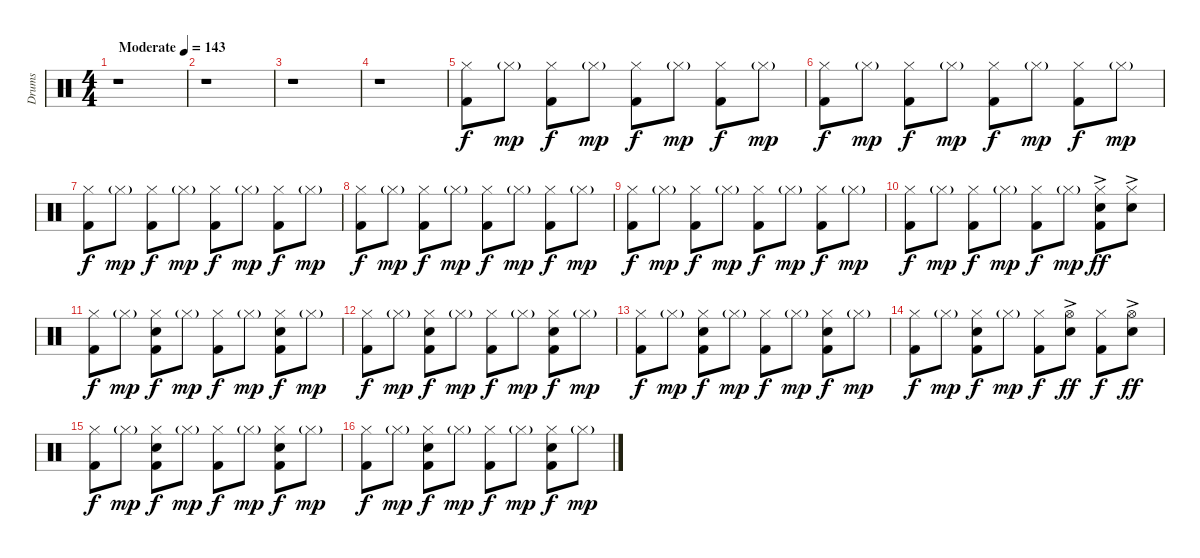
\track ("Drums" "Drums") {instrument percussion}
\staff {score}
\articulation defaults
\ts (4 4)
\tempo (143 "Moderate")
\clef neutral
\ks c
r.1{dy f} |
r.1 |
r.1 |
r.1 |
("Hi-Hat (closed)" "Kick (hit) 2").8 "Hi-Hat (closed)"{g}.8{dy mp} ("Hi-Hat (closed)" "Kick (hit) 2").8{dy f} "Hi-Hat (closed)"{g}.8{dy mp} ("Hi-Hat (closed)" "Kick (hit) 2").8{dy f} "Hi-Hat (closed)"{g}.8{dy mp} ("Hi-Hat (closed)" "Kick (hit) 2").8{dy f} "Hi-Hat (closed)"{g}.8{dy mp} |
("Hi-Hat (closed)" "Kick (hit) 2").8{dy f} "Hi-Hat (closed)"{g}.8{dy mp} ("Hi-Hat (closed)" "Kick (hit) 2").8{dy f} "Hi-Hat (closed)"{g}.8{dy mp} ("Hi-Hat (closed)" "Kick (hit) 2").8{dy f} "Hi-Hat (closed)"{g}.8{dy mp} ("Hi-Hat (closed)" "Kick (hit) 2").8{dy f} "Hi-Hat (closed)"{g}.8{dy mp} |
("Hi-Hat (closed)" "Kick (hit) 2").8{dy f} "Hi-Hat (closed)"{g}.8{dy mp} ("Hi-Hat (closed)" "Kick (hit) 2").8{dy f} "Hi-Hat (closed)"{g}.8{dy mp} ("Hi-Hat (closed)" "Kick (hit) 2").8{dy f} "Hi-Hat (closed)"{g}.8{dy mp} ("Hi-Hat (closed)" "Kick (hit) 2").8{dy f} "Hi-Hat (closed)"{g}.8{dy mp} |
("Hi-Hat (closed)" "Kick (hit) 2").8{dy f} "Hi-Hat (closed)"{g}.8{dy mp} ("Hi-Hat (closed)" "Kick (hit) 2").8{dy f} "Hi-Hat (closed)"{g}.8{dy mp} ("Hi-Hat (closed)" "Kick (hit) 2").8{dy f} "Hi-Hat (closed)"{g}.8{dy mp} ("Hi-Hat (closed)" "Kick (hit) 2").8{dy f} "Hi-Hat (closed)"{g}.8{dy mp} |
("Hi-Hat (closed)" "Kick (hit) 2").8{dy f} "Hi-Hat (closed)"{g}.8{dy mp} ("Hi-Hat (closed)" "Kick (hit) 2").8{dy f} "Hi-Hat (closed)"{g}.8{dy mp} ("Hi-Hat (closed)" "Kick (hit) 2").8{dy f} "Hi-Hat (closed)"{g}.8{dy mp} ("Hi-Hat (closed)" "Kick (hit) 2").8{dy f} "Hi-Hat (closed)"{g}.8{dy mp} |
("Hi-Hat (closed)" "Kick (hit) 2").8{dy f} "Hi-Hat (closed)"{g}.8{dy mp} ("Hi-Hat (closed)" "Kick (hit) 2").8{dy f} "Hi-Hat (closed)"{g}.8{dy mp} ("Hi-Hat (closed)" "Kick (hit) 2").8{dy f} "Hi-Hat (closed)"{g}.8{dy mp} ("Hi-Hat (closed)" "Electric Snare (hit)" "Kick (hit) 2"{ac}).8{dy ff} ("Hi-Hat (closed)" "Electric Snare (hit)"{ac}).8 |
("Hi-Hat (closed)" "Kick (hit) 2").8{dy f} "Hi-Hat (closed)"{g}.8{dy mp} ("Hi-Hat (closed)" "Electric Snare (hit)" "Kick (hit) 2").8{dy f} "Hi-Hat (closed)"{g}.8{dy mp} ("Hi-Hat (closed)" "Kick (hit) 2").8{dy f} "Hi-Hat (closed)"{g}.8{dy mp} ("Hi-Hat (closed)" "Electric Snare (hit)" "Kick (hit) 2").8{dy f} "Hi-Hat (closed)"{g}.8{dy mp} |
("Hi-Hat (closed)" "Kick (hit) 2").8{dy f} "Hi-Hat (closed)"{g}.8{dy mp} ("Hi-Hat (closed)" "Electric Snare (hit)" "Kick (hit) 2").8{dy f} "Hi-Hat (closed)"{g}.8{dy mp} ("Hi-Hat (closed)" "Kick (hit) 2").8{dy f} "Hi-Hat (closed)"{g}.8{dy mp} ("Hi-Hat (closed)" "Electric Snare (hit)" "Kick (hit) 2").8{dy f} "Hi-Hat (closed)"{g}.8{dy mp} |
("Hi-Hat (closed)" "Kick (hit) 2").8{dy f} "Hi-Hat (closed)"{g}.8{dy mp} ("Hi-Hat (closed)" "Electric Snare (hit)" "Kick (hit) 2").8{dy f} "Hi-Hat (closed)"{g}.8{dy mp} ("Hi-Hat (closed)" "Kick (hit) 2").8{dy f} "Hi-Hat (closed)"{g}.8{dy mp} ("Hi-Hat (closed)" "Electric Snare (hit)" "Kick (hit) 2").8{dy f} "Hi-Hat (closed)"{g}.8{dy mp} |
("Hi-Hat (closed)" "Kick (hit) 2").8{dy f} "Hi-Hat (closed)"{g}.8{dy mp} ("Hi-Hat (closed)" "Electric Snare (hit)" "Kick (hit) 2").8{dy f} "Hi-Hat (closed)"{g}.8{dy mp} ("Hi-Hat (closed)" "Kick (hit) 2").8{dy f} ("Hi-Hat (open)"{ac} "Electric Snare (hit)").8{dy ff} ("Hi-Hat (closed)" "Kick (hit) 2").8{dy f} ("Hi-Hat (open)"{ac} "Electric Snare (hit)").8{dy ff} |
("Hi-Hat (closed)" "Kick (hit) 2").8{dy f} "Hi-Hat (closed)"{g}.8{dy mp} ("Hi-Hat (closed)" "Electric Snare (hit)" "Kick (hit) 2").8{dy f} "Hi-Hat (closed)"{g}.8{dy mp} ("Hi-Hat (closed)" "Kick (hit) 2").8{dy f} "Hi-Hat (closed)"{g}.8{dy mp} ("Hi-Hat (closed)" "Electric Snare (hit)" "Kick (hit) 2").8{dy f} "Hi-Hat (closed)"{g}.8{dy mp} |
("Hi-Hat (closed)" "Kick (hit) 2").8{dy f} "Hi-Hat (closed)"{g}.8{dy mp} ("Hi-Hat (closed)" "Electric Snare (hit)" "Kick (hit) 2").8{dy f} "Hi-Hat (closed)"{g}.8{dy mp} ("Hi-Hat (closed)" "Kick (hit) 2").8{dy f} "Hi-Hat (closed)"{g}.8{dy mp} ("Hi-Hat (closed)" "Electric Snare (hit)" "Kick (hit) 2").8{dy f} "Hi-Hat (closed)"{g}.8{dy mp}
